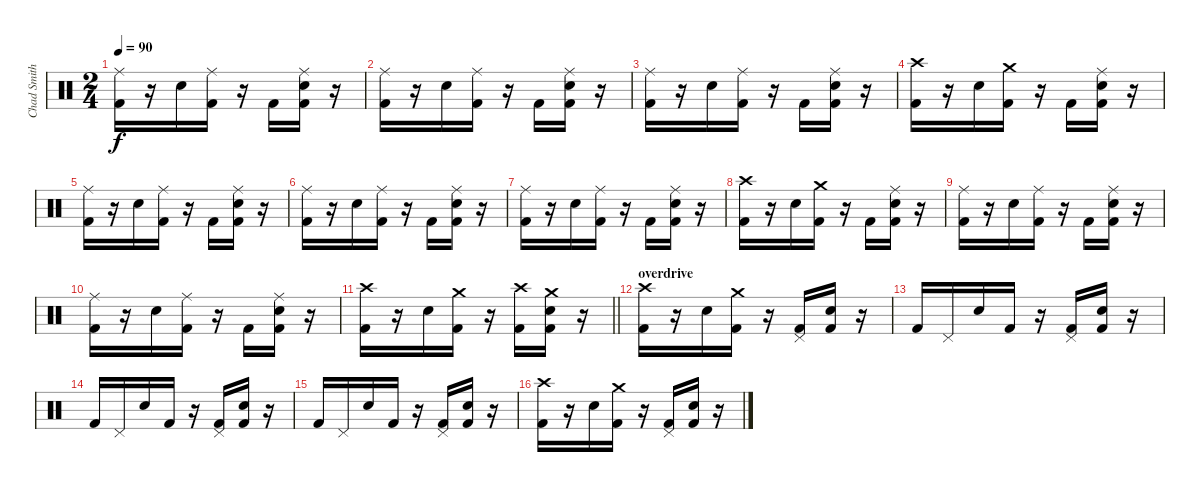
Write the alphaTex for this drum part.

\track ("Chad Smith" "Chad Smith") {instrument percussion}
\staff {score}
\articulation defaults
\ts (2 4)
\tempo 90
\clef neutral
\ks c
("Ride (middle)" "Kick (hit) 2").16{dy f} r.16 "Electric Snare (hit)".16 ("Ride (middle)" "Kick (hit) 2").16 r.16 "Kick (hit) 2".16 ("Ride (middle)" "Electric Snare (hit)" "Kick (hit) 2").16 r.16 |
("Ride (middle)" "Kick (hit) 2").16 r.16 "Electric Snare (hit)".16 ("Ride (middle)" "Kick (hit) 2").16 r.16 "Kick (hit) 2".16 ("Ride (middle)" "Electric Snare (hit)" "Kick (hit) 2").16 r.16 |
("Ride (middle)" "Kick (hit) 2").16 r.16 "Electric Snare (hit)".16 ("Ride (middle)" "Kick (hit) 2").16 r.16 "Kick (hit) 2".16 ("Ride (middle)" "Electric Snare (hit)" "Kick (hit) 2").16 r.16 |
("Crash high (hit)" "Kick (hit) 2").16 r.16 "Electric Snare (hit)".16 ("Crash medium (hit)" "Kick (hit) 2").16 r.16 "Kick (hit) 2".16 ("Ride (middle)" "Electric Snare (hit)" "Kick (hit) 2").16 r.16 |
("Ride (middle)" "Kick (hit) 2").16 r.16 "Electric Snare (hit)".16 ("Ride (middle)" "Kick (hit) 2").16 r.16 "Kick (hit) 2".16 ("Ride (middle)" "Electric Snare (hit)" "Kick (hit) 2").16 r.16 |
("Ride (middle)" "Kick (hit) 2").16 r.16 "Electric Snare (hit)".16 ("Ride (middle)" "Kick (hit) 2").16 r.16 "Kick (hit) 2".16 ("Ride (middle)" "Electric Snare (hit)" "Kick (hit) 2").16 r.16 |
("Ride (middle)" "Kick (hit) 2").16 r.16 "Electric Snare (hit)".16 ("Ride (middle)" "Kick (hit) 2").16 r.16 "Kick (hit) 2".16 ("Ride (middle)" "Electric Snare (hit)" "Kick (hit) 2").16 r.16 |
("Crash high (hit)" "Kick (hit) 2").16 r.16 "Electric Snare (hit)".16 ("Crash medium (hit)" "Kick (hit) 2").16 r.16 "Kick (hit) 2".16 ("Ride (middle)" "Electric Snare (hit)" "Kick (hit) 2").16 r.16 |
("Ride (middle)" "Kick (hit) 2").16 r.16 "Electric Snare (hit)".16 ("Ride (middle)" "Kick (hit) 2").16 r.16 "Kick (hit) 2".16 ("Ride (middle)" "Electric Snare (hit)" "Kick (hit) 2").16 r.16 |
("Ride (middle)" "Kick (hit) 2").16 r.16 "Electric Snare (hit)".16 ("Ride (middle)" "Kick (hit) 2").16 r.16 "Kick (hit) 2".16 ("Ride (middle)" "Electric Snare (hit)" "Kick (hit) 2").16 r.16 |
\barLineRight lightlight
("Crash high (hit)" "Kick (hit) 2").16 r.16 "Electric Snare (hit)".16 ("Crash medium (hit)" "Kick (hit) 2").16 r.16 ("Crash high (hit)" "Kick (hit) 2").16 ("Crash medium (hit)" "Electric Snare (hit)" "Kick (hit) 2").16 r.16 |
\section ("" "overdrive")
("Crash high (hit)" "Kick (hit) 2").16 r.16 "Electric Snare (hit)".16 ("Crash medium (hit)" "Kick (hit) 2").16 r.16 ("Pedal Hi-Hat (hit)" "Kick (hit) 2").16 ("Electric Snare (hit)" "Kick (hit) 2").16 r.16 |
"Kick (hit) 2".16 "Pedal Hi-Hat (hit)".16 "Electric Snare (hit)".16 "Kick (hit) 2".16 r.16 ("Pedal Hi-Hat (hit)" "Kick (hit) 2").16 ("Electric Snare (hit)" "Kick (hit) 2").16 r.16 |
"Kick (hit) 2".16 "Pedal Hi-Hat (hit)".16 "Electric Snare (hit)".16 "Kick (hit) 2".16 r.16 ("Pedal Hi-Hat (hit)" "Kick (hit) 2").16 ("Electric Snare (hit)" "Kick (hit) 2").16 r.16 |
"Kick (hit) 2".16 "Pedal Hi-Hat (hit)".16 "Electric Snare (hit)".16 "Kick (hit) 2".16 r.16 ("Pedal Hi-Hat (hit)" "Kick (hit) 2").16 ("Electric Snare (hit)" "Kick (hit) 2").16 r.16 |
("Crash high (hit)" "Kick (hit) 2").16 r.16 "Electric Snare (hit)".16 ("Crash medium (hit)" "Kick (hit) 2").16 r.16 ("Pedal Hi-Hat (hit)" "Kick (hit) 2").16 ("Electric Snare (hit)" "Kick (hit) 2").16 r.16
